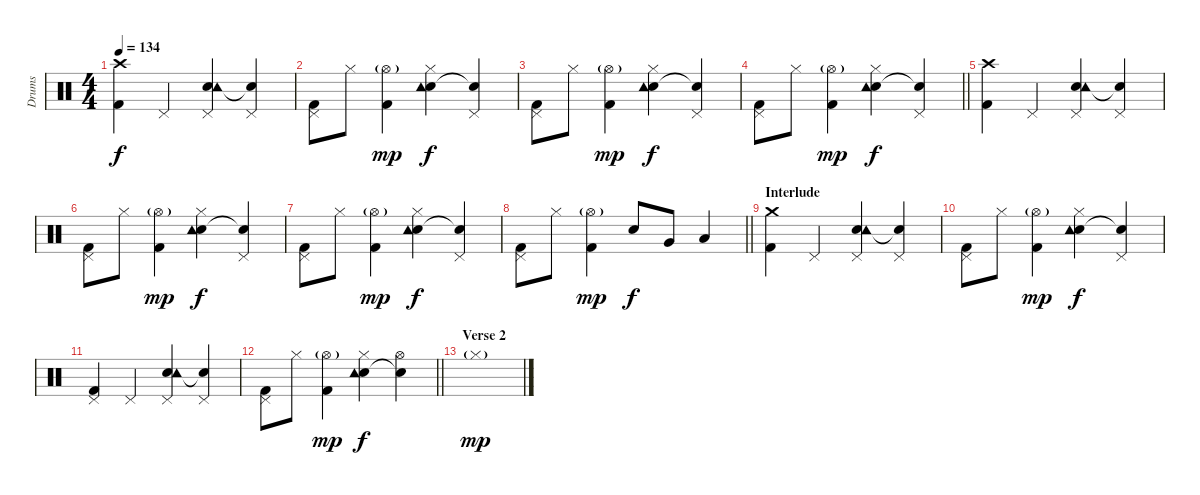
\track ("Drums" "Drums") {instrument percussion}
\staff {score}
\articulation defaults
\ts (4 4)
\tempo 134
\clef neutral
\ks c
("Crash high (hit)" "Kick (hit) 2").4{dy f} "Pedal Hi-Hat (hit)".4 ("Pedal Hi-Hat (hit)" "Electric Snare (hit)" "Tambourine (hit)").4 ("Pedal Hi-Hat (hit)" "Snare (hit)"{t}).4 |
("Pedal Hi-Hat (hit)" "Kick (hit) 2").8 "Hi-Hat (closed)".8 ("Hi-Hat (open)"{g} "Kick (hit) 2").4{dy mp} ("Hi-Hat (closed)" "Electric Snare (hit)" "Tambourine (hit)").4{dy f} ("Pedal Hi-Hat (hit)" "Snare (hit)"{t}).4 |
("Pedal Hi-Hat (hit)" "Kick (hit) 2").8 "Hi-Hat (closed)".8 ("Hi-Hat (open)"{g} "Kick (hit) 2").4{dy mp} ("Hi-Hat (closed)" "Electric Snare (hit)" "Tambourine (hit)").4{dy f} ("Pedal Hi-Hat (hit)" "Snare (hit)"{t}).4 |
\barLineRight lightlight
("Pedal Hi-Hat (hit)" "Kick (hit) 2").8 "Hi-Hat (closed)".8 ("Hi-Hat (open)"{g} "Kick (hit) 2").4{dy mp} ("Hi-Hat (closed)" "Electric Snare (hit)" "Tambourine (hit)").4{dy f} ("Pedal Hi-Hat (hit)" "Snare (hit)"{t}).4 |
("Crash high (hit)" "Kick (hit) 2").4 "Pedal Hi-Hat (hit)".4 ("Pedal Hi-Hat (hit)" "Electric Snare (hit)" "Tambourine (hit)").4 ("Pedal Hi-Hat (hit)" "Snare (hit)"{t}).4 |
("Pedal Hi-Hat (hit)" "Kick (hit) 2").8 "Hi-Hat (closed)".8 ("Hi-Hat (open)"{g} "Kick (hit) 2").4{dy mp} ("Hi-Hat (closed)" "Electric Snare (hit)" "Tambourine (hit)").4{dy f} ("Pedal Hi-Hat (hit)" "Snare (hit)"{t}).4 |
("Pedal Hi-Hat (hit)" "Kick (hit) 2").8 "Hi-Hat (closed)".8 ("Hi-Hat (open)"{g} "Kick (hit) 2").4{dy mp} ("Hi-Hat (closed)" "Electric Snare (hit)" "Tambourine (hit)").4{dy f} ("Pedal Hi-Hat (hit)" "Snare (hit)"{t}).4 |
\barLineRight lightlight
("Pedal Hi-Hat (hit)" "Kick (hit) 2").8 "Hi-Hat (closed)".8 ("Hi-Hat (open)"{g} "Kick (hit) 2").4{dy mp} "Electric Snare (hit)".8{dy f} "Very Low Tom (hit)".8 "Low Tom (hit)".4 |
\section ("" "Interlude")
("Crash medium (hit)" "Kick (hit) 2").4 "Pedal Hi-Hat (hit)".4 ("Pedal Hi-Hat (hit)" "Electric Snare (hit)" "Tambourine (hit)").4 ("Pedal Hi-Hat (hit)" "Snare (hit)"{t}).4 |
("Pedal Hi-Hat (hit)" "Kick (hit) 2").8 "Hi-Hat (closed)".8 ("Hi-Hat (open)"{g} "Kick (hit) 2").4{dy mp} ("Hi-Hat (closed)" "Electric Snare (hit)" "Tambourine (hit)").4{dy f} ("Pedal Hi-Hat (hit)" "Snare (hit)"{t}).4 |
("Pedal Hi-Hat (hit)" "Kick (hit) 2").4 "Pedal Hi-Hat (hit)".4 ("Pedal Hi-Hat (hit)" "Electric Snare (hit)" "Tambourine (hit)").4 ("Pedal Hi-Hat (hit)" "Snare (hit)"{t}).4 |
\barLineRight lightlight
("Pedal Hi-Hat (hit)" "Kick (hit) 2").8 "Hi-Hat (closed)".8 ("Hi-Hat (open)"{g} "Kick (hit) 2").4{dy mp} ("Hi-Hat (closed)" "Electric Snare (hit)" "Tambourine (hit)").4{dy f} ("Hi-Hat (open)" "Snare (hit)"{t}).4 |
\section ("" "Verse 2")
"Hi-Hat (closed)"{g}.1{dy mp}
